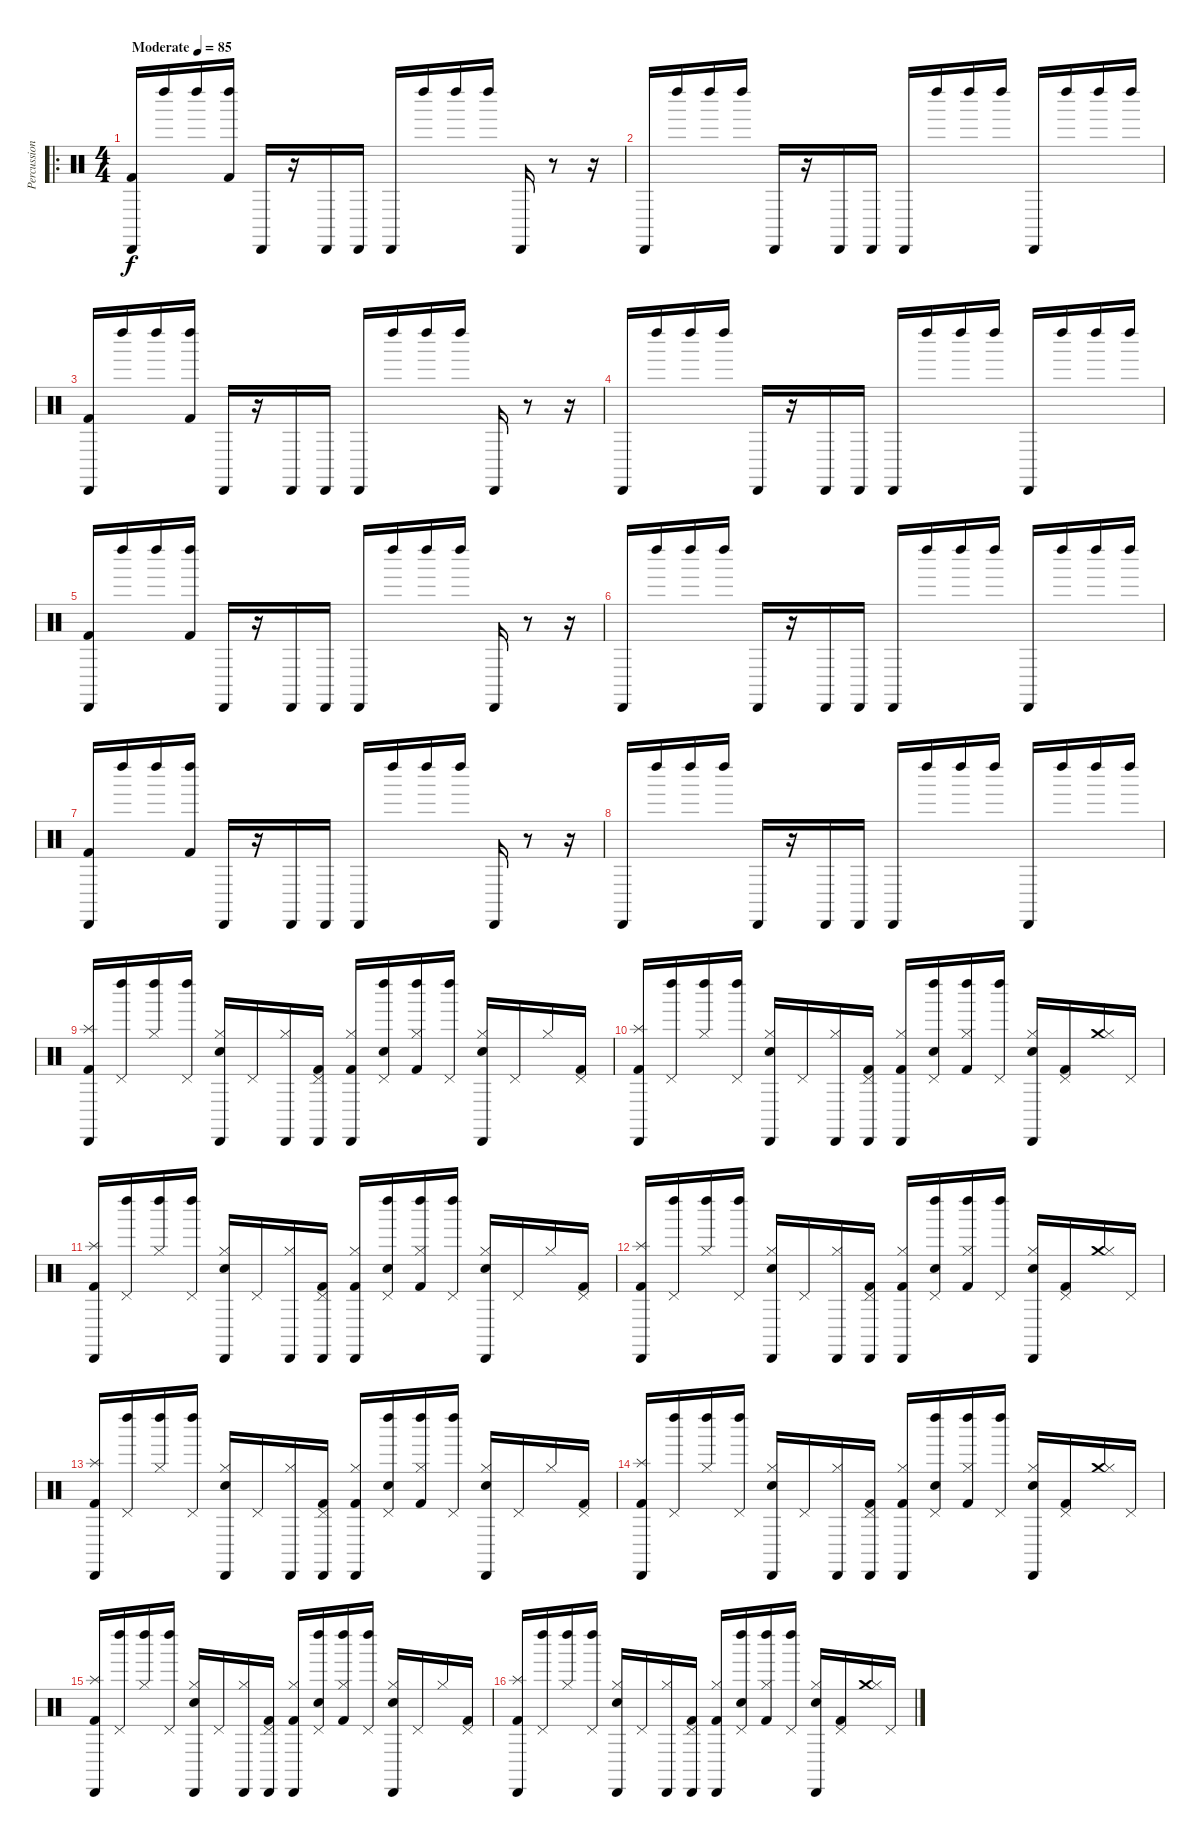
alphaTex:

\track ("Percussion" "Percussion") {instrument percussion}
\staff {score}
\articulation defaults
\ro
\ts (4 4)
\tempo (85 "Moderate")
\clef neutral
\ks c
("Cabasa (hit)" "Kick (hit) 2").16{dy f} "Left Maraca (hit)".16 "Left Maraca (hit)".16 ("Left Maraca (hit)" "Kick (hit) 2").16 "Cabasa (hit)".16 r.16 "Cabasa (hit)".16 "Cabasa (hit)".16 "Cabasa (hit)".16 "Left Maraca (hit)".16 "Left Maraca (hit)".16 "Left Maraca (hit)".16 "Cabasa (hit)".16 r.8 r.16 |
"Cabasa (hit)".16 "Left Maraca (hit)".16 "Left Maraca (hit)".16 "Left Maraca (hit)".16 "Cabasa (hit)".16 r.16 "Cabasa (hit)".16 "Cabasa (hit)".16 "Cabasa (hit)".16 "Left Maraca (hit)".16 "Left Maraca (hit)".16 "Left Maraca (hit)".16 "Cabasa (hit)".16 "Left Maraca (hit)".16 "Left Maraca (hit)".16 "Left Maraca (hit)".16 |
("Cabasa (hit)" "Kick (hit) 2").16 "Left Maraca (hit)".16 "Left Maraca (hit)".16 ("Left Maraca (hit)" "Kick (hit) 2").16 "Cabasa (hit)".16 r.16 "Cabasa (hit)".16 "Cabasa (hit)".16 "Cabasa (hit)".16 "Left Maraca (hit)".16 "Left Maraca (hit)".16 "Left Maraca (hit)".16 "Cabasa (hit)".16 r.8 r.16 |
"Cabasa (hit)".16 "Left Maraca (hit)".16 "Left Maraca (hit)".16 "Left Maraca (hit)".16 "Cabasa (hit)".16 r.16 "Cabasa (hit)".16 "Cabasa (hit)".16 "Cabasa (hit)".16 "Left Maraca (hit)".16 "Left Maraca (hit)".16 "Left Maraca (hit)".16 "Cabasa (hit)".16 "Left Maraca (hit)".16 "Left Maraca (hit)".16 "Left Maraca (hit)".16 |
("Cabasa (hit)" "Kick (hit) 2").16 "Left Maraca (hit)".16 "Left Maraca (hit)".16 ("Left Maraca (hit)" "Kick (hit) 2").16 "Cabasa (hit)".16 r.16 "Cabasa (hit)".16 "Cabasa (hit)".16 "Cabasa (hit)".16 "Left Maraca (hit)".16 "Left Maraca (hit)".16 "Left Maraca (hit)".16 "Cabasa (hit)".16 r.8 r.16 |
"Cabasa (hit)".16 "Left Maraca (hit)".16 "Left Maraca (hit)".16 "Left Maraca (hit)".16 "Cabasa (hit)".16 r.16 "Cabasa (hit)".16 "Cabasa (hit)".16 "Cabasa (hit)".16 "Left Maraca (hit)".16 "Left Maraca (hit)".16 "Left Maraca (hit)".16 "Cabasa (hit)".16 "Left Maraca (hit)".16 "Left Maraca (hit)".16 "Left Maraca (hit)".16 |
("Cabasa (hit)" "Kick (hit) 2").16 "Left Maraca (hit)".16 "Left Maraca (hit)".16 ("Left Maraca (hit)" "Kick (hit) 2").16 "Cabasa (hit)".16 r.16 "Cabasa (hit)".16 "Cabasa (hit)".16 "Cabasa (hit)".16 "Left Maraca (hit)".16 "Left Maraca (hit)".16 "Left Maraca (hit)".16 "Cabasa (hit)".16 r.8 r.16 |
"Cabasa (hit)".16 "Left Maraca (hit)".16 "Left Maraca (hit)".16 "Left Maraca (hit)".16 "Cabasa (hit)".16 r.16 "Cabasa (hit)".16 "Cabasa (hit)".16 "Cabasa (hit)".16 "Left Maraca (hit)".16 "Left Maraca (hit)".16 "Left Maraca (hit)".16 "Cabasa (hit)".16 "Left Maraca (hit)".16 "Left Maraca (hit)".16 "Left Maraca (hit)".16 |
("Cabasa (hit)" "Splash (hit)" "Kick (hit) 2").16 ("Left Maraca (hit)" "Pedal Hi-Hat (hit)").16 ("Left Maraca (hit)" "Hi-Hat (closed)").16 ("Left Maraca (hit)" "Pedal Hi-Hat (hit)").16 ("Cabasa (hit)" "Hi-Hat (closed)" "Snare (hit) 2").16 "Pedal Hi-Hat (hit)".16 ("Cabasa (hit)" "Hi-Hat (closed)").16 ("Cabasa (hit)" "Pedal Hi-Hat (hit)" "Kick (hit) 2").16 ("Cabasa (hit)" "Hi-Hat (closed)" "Kick (hit) 2").16 ("Left Maraca (hit)" "Pedal Hi-Hat (hit)" "Snare (hit) 2").16 ("Left Maraca (hit)" "Hi-Hat (closed)" "Kick (hit) 2").16 ("Left Maraca (hit)" "Pedal Hi-Hat (hit)").16 ("Cabasa (hit)" "Hi-Hat (closed)" "Snare (hit) 2").16 "Pedal Hi-Hat (hit)".16 "Hi-Hat (closed)".16 ("Pedal Hi-Hat (hit)" "Kick (hit) 2").16 |
("Cabasa (hit)" "Splash (hit)" "Kick (hit) 2").16 ("Left Maraca (hit)" "Pedal Hi-Hat (hit)").16 ("Left Maraca (hit)" "Hi-Hat (closed)").16 ("Left Maraca (hit)" "Pedal Hi-Hat (hit)").16 ("Cabasa (hit)" "Hi-Hat (closed)" "Snare (hit) 2").16 "Pedal Hi-Hat (hit)".16 ("Cabasa (hit)" "Hi-Hat (closed)").16 ("Cabasa (hit)" "Pedal Hi-Hat (hit)" "Kick (hit) 2").16 ("Cabasa (hit)" "Hi-Hat (closed)" "Kick (hit) 2").16 ("Left Maraca (hit)" "Pedal Hi-Hat (hit)" "Snare (hit) 2").16 ("Left Maraca (hit)" "Hi-Hat (closed)" "Kick (hit) 2").16 ("Left Maraca (hit)" "Pedal Hi-Hat (hit)").16 ("Cabasa (hit)" "Hi-Hat (closed)" "Snare (hit) 2").16 ("Pedal Hi-Hat (hit)" "Kick (hit) 2").16 ("Crash medium (hit)" "Hi-Hat (closed)").16 "Pedal Hi-Hat (hit)".16 |
("Cabasa (hit)" "Splash (hit)" "Kick (hit) 2").16 ("Left Maraca (hit)" "Pedal Hi-Hat (hit)").16 ("Left Maraca (hit)" "Hi-Hat (closed)").16 ("Left Maraca (hit)" "Pedal Hi-Hat (hit)").16 ("Cabasa (hit)" "Hi-Hat (closed)" "Snare (hit) 2").16 "Pedal Hi-Hat (hit)".16 ("Cabasa (hit)" "Hi-Hat (closed)").16 ("Cabasa (hit)" "Pedal Hi-Hat (hit)" "Kick (hit) 2").16 ("Cabasa (hit)" "Hi-Hat (closed)" "Kick (hit) 2").16 ("Left Maraca (hit)" "Pedal Hi-Hat (hit)" "Snare (hit) 2").16 ("Left Maraca (hit)" "Hi-Hat (closed)" "Kick (hit) 2").16 ("Left Maraca (hit)" "Pedal Hi-Hat (hit)").16 ("Cabasa (hit)" "Hi-Hat (closed)" "Snare (hit) 2").16 "Pedal Hi-Hat (hit)".16 "Hi-Hat (closed)".16 ("Pedal Hi-Hat (hit)" "Kick (hit) 2").16 |
("Cabasa (hit)" "Splash (hit)" "Kick (hit) 2").16 ("Left Maraca (hit)" "Pedal Hi-Hat (hit)").16 ("Left Maraca (hit)" "Hi-Hat (closed)").16 ("Left Maraca (hit)" "Pedal Hi-Hat (hit)").16 ("Cabasa (hit)" "Hi-Hat (closed)" "Snare (hit) 2").16 "Pedal Hi-Hat (hit)".16 ("Cabasa (hit)" "Hi-Hat (closed)").16 ("Cabasa (hit)" "Pedal Hi-Hat (hit)" "Kick (hit) 2").16 ("Cabasa (hit)" "Hi-Hat (closed)" "Kick (hit) 2").16 ("Left Maraca (hit)" "Pedal Hi-Hat (hit)" "Snare (hit) 2").16 ("Left Maraca (hit)" "Hi-Hat (closed)" "Kick (hit) 2").16 ("Left Maraca (hit)" "Pedal Hi-Hat (hit)").16 ("Cabasa (hit)" "Hi-Hat (closed)" "Snare (hit) 2").16 ("Pedal Hi-Hat (hit)" "Kick (hit) 2").16 ("Crash medium (hit)" "Hi-Hat (closed)").16 "Pedal Hi-Hat (hit)".16 |
("Cabasa (hit)" "Splash (hit)" "Kick (hit) 2").16 ("Left Maraca (hit)" "Pedal Hi-Hat (hit)").16 ("Left Maraca (hit)" "Hi-Hat (closed)").16 ("Left Maraca (hit)" "Pedal Hi-Hat (hit)").16 ("Cabasa (hit)" "Hi-Hat (closed)" "Snare (hit) 2").16 "Pedal Hi-Hat (hit)".16 ("Cabasa (hit)" "Hi-Hat (closed)").16 ("Cabasa (hit)" "Pedal Hi-Hat (hit)" "Kick (hit) 2").16 ("Cabasa (hit)" "Hi-Hat (closed)" "Kick (hit) 2").16 ("Left Maraca (hit)" "Pedal Hi-Hat (hit)" "Snare (hit) 2").16 ("Left Maraca (hit)" "Hi-Hat (closed)" "Kick (hit) 2").16 ("Left Maraca (hit)" "Pedal Hi-Hat (hit)").16 ("Cabasa (hit)" "Hi-Hat (closed)" "Snare (hit) 2").16 "Pedal Hi-Hat (hit)".16 "Hi-Hat (closed)".16 ("Pedal Hi-Hat (hit)" "Kick (hit) 2").16 |
("Cabasa (hit)" "Splash (hit)" "Kick (hit) 2").16 ("Left Maraca (hit)" "Pedal Hi-Hat (hit)").16 ("Left Maraca (hit)" "Hi-Hat (closed)").16 ("Left Maraca (hit)" "Pedal Hi-Hat (hit)").16 ("Cabasa (hit)" "Hi-Hat (closed)" "Snare (hit) 2").16 "Pedal Hi-Hat (hit)".16 ("Cabasa (hit)" "Hi-Hat (closed)").16 ("Cabasa (hit)" "Pedal Hi-Hat (hit)" "Kick (hit) 2").16 ("Cabasa (hit)" "Hi-Hat (closed)" "Kick (hit) 2").16 ("Left Maraca (hit)" "Pedal Hi-Hat (hit)" "Snare (hit) 2").16 ("Left Maraca (hit)" "Hi-Hat (closed)" "Kick (hit) 2").16 ("Left Maraca (hit)" "Pedal Hi-Hat (hit)").16 ("Cabasa (hit)" "Hi-Hat (closed)" "Snare (hit) 2").16 ("Pedal Hi-Hat (hit)" "Kick (hit) 2").16 ("Crash medium (hit)" "Hi-Hat (closed)").16 "Pedal Hi-Hat (hit)".16 |
("Cabasa (hit)" "Splash (hit)" "Kick (hit) 2").16 ("Left Maraca (hit)" "Pedal Hi-Hat (hit)").16 ("Left Maraca (hit)" "Hi-Hat (closed)").16 ("Left Maraca (hit)" "Pedal Hi-Hat (hit)").16 ("Cabasa (hit)" "Hi-Hat (closed)" "Snare (hit) 2").16 "Pedal Hi-Hat (hit)".16 ("Cabasa (hit)" "Hi-Hat (closed)").16 ("Cabasa (hit)" "Pedal Hi-Hat (hit)" "Kick (hit) 2").16 ("Cabasa (hit)" "Hi-Hat (closed)" "Kick (hit) 2").16 ("Left Maraca (hit)" "Pedal Hi-Hat (hit)" "Snare (hit) 2").16 ("Left Maraca (hit)" "Hi-Hat (closed)" "Kick (hit) 2").16 ("Left Maraca (hit)" "Pedal Hi-Hat (hit)").16 ("Cabasa (hit)" "Hi-Hat (closed)" "Snare (hit) 2").16 "Pedal Hi-Hat (hit)".16 "Hi-Hat (closed)".16 ("Pedal Hi-Hat (hit)" "Kick (hit) 2").16 |
("Cabasa (hit)" "Splash (hit)" "Kick (hit) 2").16 ("Left Maraca (hit)" "Pedal Hi-Hat (hit)").16 ("Left Maraca (hit)" "Hi-Hat (closed)").16 ("Left Maraca (hit)" "Pedal Hi-Hat (hit)").16 ("Cabasa (hit)" "Hi-Hat (closed)" "Snare (hit) 2").16 "Pedal Hi-Hat (hit)".16 ("Cabasa (hit)" "Hi-Hat (closed)").16 ("Cabasa (hit)" "Pedal Hi-Hat (hit)" "Kick (hit) 2").16 ("Cabasa (hit)" "Hi-Hat (closed)" "Kick (hit) 2").16 ("Left Maraca (hit)" "Pedal Hi-Hat (hit)" "Snare (hit) 2").16 ("Left Maraca (hit)" "Hi-Hat (closed)" "Kick (hit) 2").16 ("Left Maraca (hit)" "Pedal Hi-Hat (hit)").16 ("Cabasa (hit)" "Hi-Hat (closed)" "Snare (hit) 2").16 ("Pedal Hi-Hat (hit)" "Kick (hit) 2").16 ("Crash medium (hit)" "Hi-Hat (closed)").16 "Pedal Hi-Hat (hit)".16
